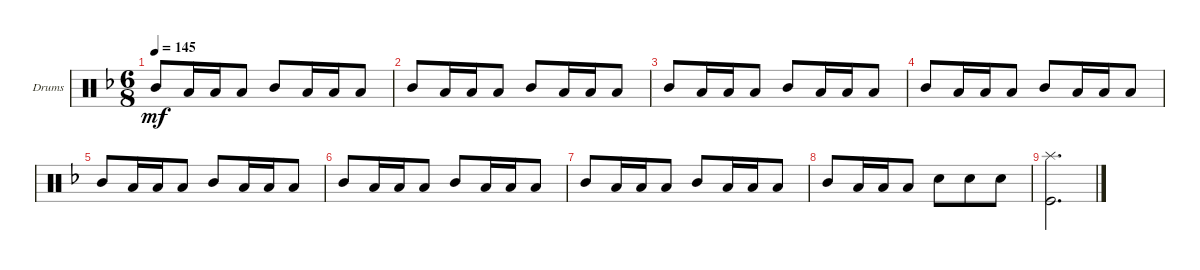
\bracketExtendMode groupsimilarinstruments
\firstSystemTrackNameOrientation horizontal
\otherSystemsTrackNameOrientation horizontal
\track ("Drumkit" "Drums") {instrument percussion}
\staff {score}
\articulation defaults
\ts (6 8)
\tempo 145
\clef neutral
\ks f "Mid Tom (hit)".8{dy mf} "Low Tom (hit)".16 "Low Tom (hit)".16 "Low Tom (hit)".8 "Mid Tom (hit)".8 "Low Tom (hit)".16 "Low Tom (hit)".16 "Low Tom (hit)".8
|
"Mid Tom (hit)".8 "Low Tom (hit)".16 "Low Tom (hit)".16 "Low Tom (hit)".8 "Mid Tom (hit)".8 "Low Tom (hit)".16 "Low Tom (hit)".16 "Low Tom (hit)".8 |
"Mid Tom (hit)".8 "Low Tom (hit)".16 "Low Tom (hit)".16 "Low Tom (hit)".8 "Mid Tom (hit)".8 "Low Tom (hit)".16 "Low Tom (hit)".16 "Low Tom (hit)".8 |
"Mid Tom (hit)".8 "Low Tom (hit)".16 "Low Tom (hit)".16 "Low Tom (hit)".8 "Mid Tom (hit)".8 "Low Tom (hit)".16 "Low Tom (hit)".16 "Low Tom (hit)".8 |
"Mid Tom (hit)".8 "Low Tom (hit)".16 "Low Tom (hit)".16 "Low Tom (hit)".8 "Mid Tom (hit)".8 "Low Tom (hit)".16 "Low Tom (hit)".16 "Low Tom (hit)".8 |
"Mid Tom (hit)".8 "Low Tom (hit)".16 "Low Tom (hit)".16 "Low Tom (hit)".8 "Mid Tom (hit)".8 "Low Tom (hit)".16 "Low Tom (hit)".16 "Low Tom (hit)".8 |
"Mid Tom (hit)".8 "Low Tom (hit)".16 "Low Tom (hit)".16 "Low Tom (hit)".8 "Mid Tom (hit)".8 "Low Tom (hit)".16 "Low Tom (hit)".16 "Low Tom (hit)".8 |
"Mid Tom (hit)".8 "Low Tom (hit)".16 "Low Tom (hit)".16 "Low Tom (hit)".8 "Snare (hit) 2".8 "Snare (hit) 2".8 "Snare (hit) 2".8 |
("Splash (hit)" "Kick (hit)").2{d}
